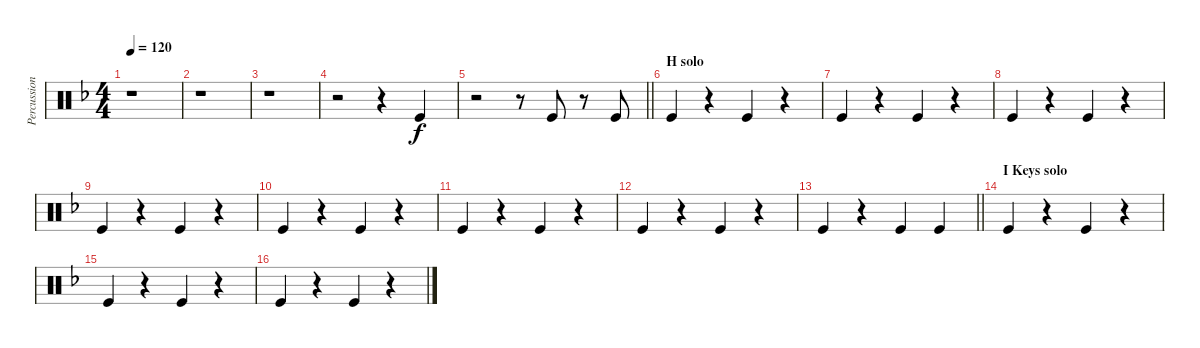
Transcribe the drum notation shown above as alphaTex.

\track ("Percussion foot" "Percussion") {instrument percussion}
\staff {score}
\articulation defaults
\ts (4 4)
\tempo 120
\clef neutral
\ks f
r.1{dy f} |
r.1 |
r.1 |
r.2 r.4 "Kick (hit)".4 |
\barLineRight lightlight
r.2 r.8 "Kick (hit)".8 r.8 "Kick (hit)".8 |
\section ("" "H solo")
"Kick (hit)".4 r.4 "Kick (hit)".4 r.4 |
"Kick (hit)".4 r.4 "Kick (hit)".4 r.4 |
"Kick (hit)".4 r.4 "Kick (hit)".4 r.4 |
"Kick (hit)".4 r.4 "Kick (hit)".4 r.4 |
"Kick (hit)".4 r.4 "Kick (hit)".4 r.4 |
"Kick (hit)".4 r.4 "Kick (hit)".4 r.4 |
"Kick (hit)".4 r.4 "Kick (hit)".4 r.4 |
\barLineRight lightlight "Kick (hit)".4
r.4 "Kick (hit)".4 "Kick (hit)".4 |
\section ("" "I Keys solo")
"Kick (hit)".4 r.4 "Kick (hit)".4 r.4 |
"Kick (hit)".4 r.4 "Kick (hit)".4 r.4 |
"Kick (hit)".4 r.4 "Kick (hit)".4 r.4
